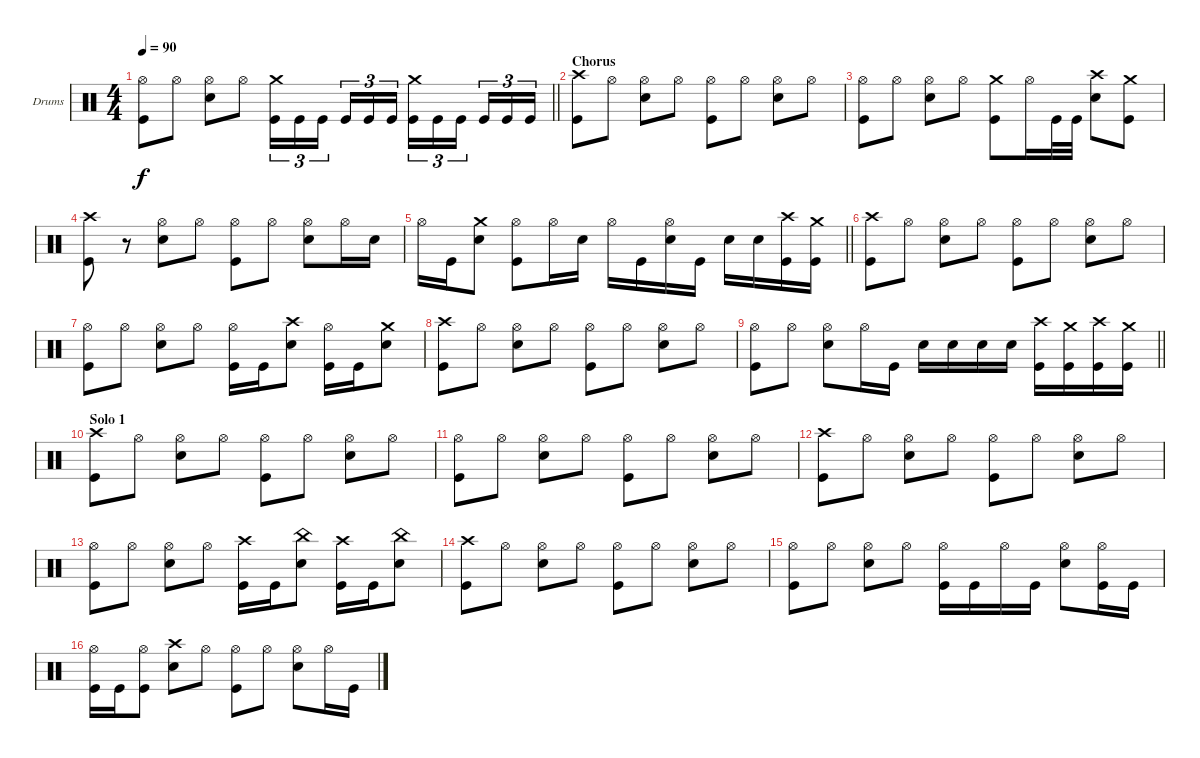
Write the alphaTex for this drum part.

\bracketExtendMode groupsimilarinstruments
\firstSystemTrackNameOrientation horizontal
\otherSystemsTrackNameOrientation horizontal
\track ("Drumkit" "Drums") {instrument percussion}
\staff {score}
\articulation defaults
\ts (4 4)
\tempo 90
\clef neutral
\barLineRight lightlight
\ks c
("Hi-Hat (open)" "Kick (hit)").8{dy f} "Hi-Hat (open)".8 ("Hi-Hat (open)" "Snare (hit) 2").8 "Hi-Hat (open)".8 ("Crash medium (hit)" "Kick (hit)").16{tu (3 2)} "Kick (hit)".16{tu (3 2)} "Kick (hit)".16{tu (3 2)} "Kick (hit)".16{tu (3 2)} "Kick (hit)".16{tu (3 2)} "Kick (hit)".16{tu (3 2)} ("Crash medium (hit)" "Kick (hit)").16{tu (3 2)} "Kick (hit)".16{tu (3 2)} "Kick (hit)".16{tu (3 2)} "Kick (hit)".16{tu (3 2)} "Kick (hit)".16{tu (3 2)} "Kick (hit)".16{tu (3 2)} |
\section ("" "Chorus")
("Crash high (hit)" "Kick (hit)").8 "Hi-Hat (open)".8 ("Hi-Hat (open)" "Snare (hit) 2").8 "Hi-Hat (open)".8 ("Hi-Hat (open)" "Kick (hit)").8 "Hi-Hat (open)".8 ("Hi-Hat (open)" "Snare (hit) 2").8 "Hi-Hat (open)".8 |
("Hi-Hat (open)" "Kick (hit)").8 "Hi-Hat (open)".8 ("Hi-Hat (open)" "Snare (hit) 2").8 "Hi-Hat (open)".8 ("Crash medium (hit)" "Kick (hit)").8 "Hi-Hat (open)".16 "Kick (hit)".32 "Kick (hit)".32 ("Crash high (hit)" "Snare (hit) 2").8 ("Crash medium (hit)" "Kick (hit)").8 |
("Crash high (hit)" "Kick (hit)").8 r.8 ("Hi-Hat (open)" "Snare (hit) 2").8 "Hi-Hat (open)".8 ("Hi-Hat (open)" "Kick (hit)").8 "Hi-Hat (open)".8 ("Hi-Hat (open)" "Snare (hit) 2").8 "Hi-Hat (open)".16 "Snare (hit) 2".16 |
\barLineRight lightlight "Hi-Hat (open)".16 "Kick (hit)".16
("Crash medium (hit)" "Snare (hit) 2").8 ("Hi-Hat (open)" "Kick (hit)").8 "Hi-Hat (open)".16 "Snare (hit) 2".16 "Hi-Hat (open)".16 "Kick (hit)".16 ("Hi-Hat (open)" "Snare (hit) 2").16 "Kick (hit)".16 "Snare (hit) 2".16 "Snare (hit) 2".16 ("Crash high (hit)" "Kick (hit)").16 ("Crash medium (hit)" "Kick (hit)").16 |
("Crash high (hit)" "Kick (hit)").8 "Hi-Hat (open)".8 ("Hi-Hat (open)" "Snare (hit) 2").8 "Hi-Hat (open)".8 ("Hi-Hat (open)" "Kick (hit)").8 "Hi-Hat (open)".8 ("Hi-Hat (open)" "Snare (hit) 2").8 "Hi-Hat (open)".8 |
("Hi-Hat (open)" "Kick (hit)").8 "Hi-Hat (open)".8 ("Hi-Hat (open)" "Snare (hit) 2").8 "Hi-Hat (open)".8 ("Hi-Hat (open)" "Kick (hit)").16 "Kick (hit)".16 ("Crash high (hit)" "Snare (hit) 2").8 ("Hi-Hat (open)" "Kick (hit)").16 "Kick (hit)".16 ("Crash medium (hit)" "Snare (hit) 2").8 |
("Crash high (hit)" "Kick (hit)").8 "Hi-Hat (open)".8 ("Hi-Hat (open)" "Snare (hit) 2").8 "Hi-Hat (open)".8 ("Hi-Hat (open)" "Kick (hit)").8 "Hi-Hat (open)".8 ("Hi-Hat (open)" "Snare (hit) 2").8 "Hi-Hat (open)".8 |
\barLineRight lightlight
("Hi-Hat (open)" "Kick (hit)").8 "Hi-Hat (open)".8 ("Hi-Hat (open)" "Snare (hit) 2").8 "Hi-Hat (open)".16 "Kick (hit)".16 "Snare (hit) 2".16 "Snare (hit) 2".16 "Snare (hit) 2".16 "Snare (hit) 2".16 ("Crash high (hit)" "Kick (hit)").16 ("Crash medium (hit)" "Kick (hit)").16 ("Crash high (hit)" "Kick (hit)").16 ("Crash medium (hit)" "Kick (hit)").16 |
\section ("" "Solo 1")
("Crash high (hit)" "Kick (hit)").8 "Hi-Hat (open)".8 ("Hi-Hat (open)" "Snare (hit) 2").8 "Hi-Hat (open)".8 ("Hi-Hat (open)" "Kick (hit)").8 "Hi-Hat (open)".8 ("Hi-Hat (open)" "Snare (hit) 2").8 "Hi-Hat (open)".8 |
("Hi-Hat (open)" "Kick (hit)").8 "Hi-Hat (open)".8 ("Hi-Hat (open)" "Snare (hit) 2").8 "Hi-Hat (open)".8 ("Hi-Hat (open)" "Kick (hit)").8 "Hi-Hat (open)".8 ("Hi-Hat (open)" "Snare (hit) 2").8 "Hi-Hat (open)".8 |
("Crash high (hit)" "Kick (hit)").8 "Hi-Hat (open)".8 ("Hi-Hat (open)" "Snare (hit) 2").8 "Hi-Hat (open)".8 ("Hi-Hat (open)" "Kick (hit)").8 "Hi-Hat (open)".8 ("Hi-Hat (open)" "Snare (hit) 2").8 "Hi-Hat (open)".8 |
("Hi-Hat (open)" "Kick (hit)").8 "Hi-Hat (open)".8 ("Hi-Hat (open)" "Snare (hit) 2").8 "Hi-Hat (open)".8 ("Crash high (hit)" "Kick (hit)").16 "Kick (hit)".16 ("China (hit)" "Snare (hit) 2").8 ("Crash high (hit)" "Kick (hit)").16 "Kick (hit)".16 ("China (hit)" "Snare (hit) 2").8 |
("Crash high (hit)" "Kick (hit)").8 "Hi-Hat (open)".8 ("Hi-Hat (open)" "Snare (hit) 2").8 "Hi-Hat (open)".8 ("Hi-Hat (open)" "Kick (hit)").8 "Hi-Hat (open)".8 ("Hi-Hat (open)" "Snare (hit) 2").8 "Hi-Hat (open)".8 |
("Hi-Hat (open)" "Kick (hit)").8 "Hi-Hat (open)".8 ("Hi-Hat (open)" "Snare (hit) 2").8 "Hi-Hat (open)".8 ("Hi-Hat (open)" "Kick (hit)").16 "Kick (hit)".16 "Hi-Hat (open)".16 "Kick (hit)".16 ("Hi-Hat (open)" "Snare (hit) 2").8 ("Hi-Hat (open)" "Kick (hit)").16 "Kick (hit)".16 |
("Hi-Hat (open)" "Kick (hit)").16 "Kick (hit)".16 ("Hi-Hat (open)" "Kick (hit)").8 ("Crash high (hit)" "Snare (hit) 2").8 "Hi-Hat (open)".8 ("Hi-Hat (open)" "Kick (hit)").8 "Hi-Hat (open)".8 ("Hi-Hat (open)" "Snare (hit) 2").8 "Hi-Hat (open)".16 "Kick (hit)".16
